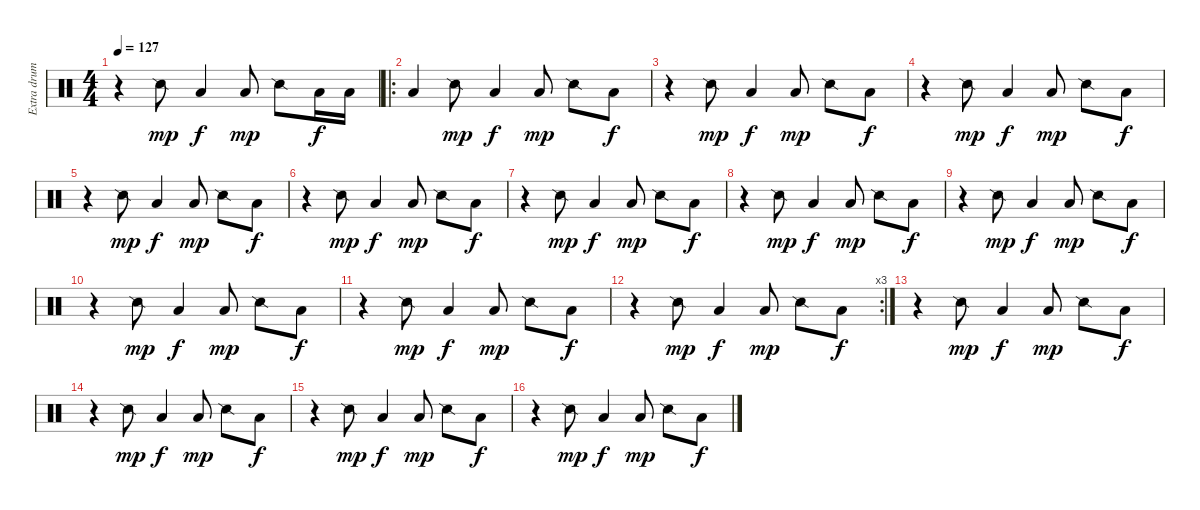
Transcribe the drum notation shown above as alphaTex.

\track ("Extra drums" "Extra drum") {instrument percussion}
\staff {score}
\articulation defaults
\ts (4 4)
\tempo 127
\clef neutral
\ks c
r.4{dy f} "Snare (side stick) 2".8{dy mp} "Low Tom (hit)".4{dy f} "Low Tom (hit)".8{dy mp} "Snare (side stick) 2".8 "Low Tom (hit)".16{dy f} "Low Tom (hit)".16 |
\ro "Low Tom (hit)".4 "Snare (side stick) 2".8{dy mp} "Low Tom (hit)".4{dy f} "Low Tom (hit)".8{dy mp} "Snare (side stick) 2".8 "Low Tom (hit)".8{dy f}
|
r.4 "Snare (side stick) 2".8{dy mp} "Low Tom (hit)".4{dy f} "Low Tom (hit)".8{dy mp} "Snare (side stick) 2".8 "Low Tom (hit)".8{dy f} |
r.4 "Snare (side stick) 2".8{dy mp} "Low Tom (hit)".4{dy f} "Low Tom (hit)".8{dy mp} "Snare (side stick) 2".8 "Low Tom (hit)".8{dy f} |
r.4 "Snare (side stick) 2".8{dy mp} "Low Tom (hit)".4{dy f} "Low Tom (hit)".8{dy mp} "Snare (side stick) 2".8 "Low Tom (hit)".8{dy f} |
r.4 "Snare (side stick) 2".8{dy mp} "Low Tom (hit)".4{dy f} "Low Tom (hit)".8{dy mp} "Snare (side stick) 2".8 "Low Tom (hit)".8{dy f} |
r.4 "Snare (side stick) 2".8{dy mp} "Low Tom (hit)".4{dy f} "Low Tom (hit)".8{dy mp} "Snare (side stick) 2".8 "Low Tom (hit)".8{dy f} |
r.4 "Snare (side stick) 2".8{dy mp} "Low Tom (hit)".4{dy f} "Low Tom (hit)".8{dy mp} "Snare (side stick) 2".8 "Low Tom (hit)".8{dy f} |
r.4 "Snare (side stick) 2".8{dy mp} "Low Tom (hit)".4{dy f} "Low Tom (hit)".8{dy mp} "Snare (side stick) 2".8 "Low Tom (hit)".8{dy f} |
r.4 "Snare (side stick) 2".8{dy mp} "Low Tom (hit)".4{dy f} "Low Tom (hit)".8{dy mp} "Snare (side stick) 2".8 "Low Tom (hit)".8{dy f} |
r.4 "Snare (side stick) 2".8{dy mp} "Low Tom (hit)".4{dy f} "Low Tom (hit)".8{dy mp} "Snare (side stick) 2".8 "Low Tom (hit)".8{dy f} |
\rc 3
r.4 "Snare (side stick) 2".8{dy mp} "Low Tom (hit)".4{dy f} "Low Tom (hit)".8{dy mp} "Snare (side stick) 2".8 "Low Tom (hit)".8{dy f} |
r.4 "Snare (side stick) 2".8{dy mp} "Low Tom (hit)".4{dy f} "Low Tom (hit)".8{dy mp} "Snare (side stick) 2".8 "Low Tom (hit)".8{dy f} |
r.4 "Snare (side stick) 2".8{dy mp} "Low Tom (hit)".4{dy f} "Low Tom (hit)".8{dy mp} "Snare (side stick) 2".8 "Low Tom (hit)".8{dy f} |
r.4 "Snare (side stick) 2".8{dy mp} "Low Tom (hit)".4{dy f} "Low Tom (hit)".8{dy mp} "Snare (side stick) 2".8 "Low Tom (hit)".8{dy f} |
r.4 "Snare (side stick) 2".8{dy mp} "Low Tom (hit)".4{dy f} "Low Tom (hit)".8{dy mp} "Snare (side stick) 2".8 "Low Tom (hit)".8{dy f}
